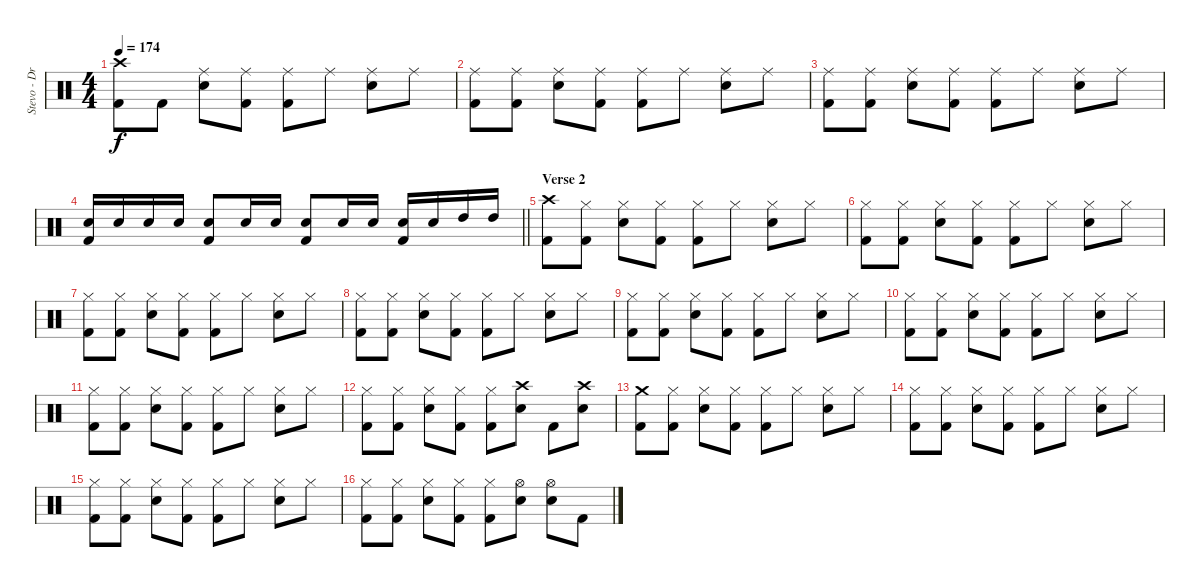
\track ("Stevo - Drums" "Stevo - Dr") {instrument percussion}
\staff {score}
\articulation defaults
\ts (4 4)
\tempo 174
\clef neutral
\ks c
("Crash high (hit)" "Kick (hit) 2").8{dy f} "Kick (hit) 2".8 ("Ride (middle)" "Electric Snare (hit)").8 ("Ride (middle)" "Kick (hit) 2").8 ("Ride (middle)" "Kick (hit) 2").8 "Ride (middle)".8 ("Ride (middle)" "Electric Snare (hit)").8 "Ride (middle)".8 |
("Ride (middle)" "Kick (hit) 2").8 ("Ride (middle)" "Kick (hit) 2").8 ("Ride (middle)" "Electric Snare (hit)").8 ("Ride (middle)" "Kick (hit) 2").8 ("Ride (middle)" "Kick (hit) 2").8 "Ride (middle)".8 ("Ride (middle)" "Electric Snare (hit)").8 "Ride (middle)".8 |
("Ride (middle)" "Kick (hit) 2").8 ("Ride (middle)" "Kick (hit) 2").8 ("Ride (middle)" "Electric Snare (hit)").8 ("Ride (middle)" "Kick (hit) 2").8 ("Ride (middle)" "Kick (hit) 2").8 "Ride (middle)".8 ("Ride (middle)" "Electric Snare (hit)").8 "Ride (middle)".8 |
\barLineRight lightlight
("Electric Snare (hit)" "Kick (hit) 2").16 "Electric Snare (hit)".16 "Electric Snare (hit)".16 "Electric Snare (hit)".16 ("Electric Snare (hit)" "Kick (hit) 2").8 "Electric Snare (hit)".16 "Electric Snare (hit)".16 ("Electric Snare (hit)" "Kick (hit) 2").8 "Electric Snare (hit)".16 "Electric Snare (hit)".16 ("Electric Snare (hit)" "Kick (hit) 2").16 "Electric Snare (hit)".16 "High Tom (hit)".16 "High Tom (hit)".16 |
\section ("" "Verse 2")
("Crash high (hit)" "Kick (hit) 2").8 ("Hi-Hat (closed)" "Kick (hit) 2").8 ("Hi-Hat (closed)" "Electric Snare (hit)").8 ("Hi-Hat (closed)" "Kick (hit) 2").8 ("Hi-Hat (closed)" "Kick (hit) 2").8 "Hi-Hat (closed)".8 ("Hi-Hat (closed)" "Electric Snare (hit)").8 "Hi-Hat (closed)".8 |
("Hi-Hat (closed)" "Kick (hit) 2").8 ("Hi-Hat (closed)" "Kick (hit) 2").8 ("Hi-Hat (closed)" "Electric Snare (hit)").8 ("Hi-Hat (closed)" "Kick (hit) 2").8 ("Hi-Hat (closed)" "Kick (hit) 2").8 "Hi-Hat (closed)".8 ("Hi-Hat (closed)" "Electric Snare (hit)").8 "Hi-Hat (closed)".8 |
("Hi-Hat (closed)" "Kick (hit) 2").8 ("Hi-Hat (closed)" "Kick (hit) 2").8 ("Hi-Hat (closed)" "Electric Snare (hit)").8 ("Hi-Hat (closed)" "Kick (hit) 2").8 ("Hi-Hat (closed)" "Kick (hit) 2").8 "Hi-Hat (closed)".8 ("Hi-Hat (closed)" "Electric Snare (hit)").8 "Hi-Hat (closed)".8 |
("Hi-Hat (closed)" "Kick (hit) 2").8 ("Hi-Hat (closed)" "Kick (hit) 2").8 ("Hi-Hat (closed)" "Electric Snare (hit)").8 ("Hi-Hat (closed)" "Kick (hit) 2").8 ("Hi-Hat (closed)" "Kick (hit) 2").8 "Hi-Hat (closed)".8 ("Hi-Hat (closed)" "Electric Snare (hit)").8 "Hi-Hat (closed)".8 |
("Hi-Hat (closed)" "Kick (hit) 2").8 ("Hi-Hat (closed)" "Kick (hit) 2").8 ("Hi-Hat (closed)" "Electric Snare (hit)").8 ("Hi-Hat (closed)" "Kick (hit) 2").8 ("Hi-Hat (closed)" "Kick (hit) 2").8 "Hi-Hat (closed)".8 ("Hi-Hat (closed)" "Electric Snare (hit)").8 "Hi-Hat (closed)".8 |
("Hi-Hat (closed)" "Kick (hit) 2").8 ("Hi-Hat (closed)" "Kick (hit) 2").8 ("Hi-Hat (closed)" "Electric Snare (hit)").8 ("Hi-Hat (closed)" "Kick (hit) 2").8 ("Hi-Hat (closed)" "Kick (hit) 2").8 "Hi-Hat (closed)".8 ("Hi-Hat (closed)" "Electric Snare (hit)").8 "Hi-Hat (closed)".8 |
("Hi-Hat (closed)" "Kick (hit) 2").8 ("Hi-Hat (closed)" "Kick (hit) 2").8 ("Hi-Hat (closed)" "Electric Snare (hit)").8 ("Hi-Hat (closed)" "Kick (hit) 2").8 ("Hi-Hat (closed)" "Kick (hit) 2").8 "Hi-Hat (closed)".8 ("Hi-Hat (closed)" "Electric Snare (hit)").8 "Hi-Hat (closed)".8 |
("Hi-Hat (closed)" "Kick (hit) 2").8 ("Hi-Hat (closed)" "Kick (hit) 2").8 ("Hi-Hat (closed)" "Electric Snare (hit)").8 ("Hi-Hat (closed)" "Kick (hit) 2").8 ("Hi-Hat (closed)" "Kick (hit) 2").8 ("Crash high (hit)" "Electric Snare (hit)").8 "Kick (hit) 2".8 ("Crash high (hit)" "Electric Snare (hit)").8 |
("Crash medium (hit)" "Kick (hit) 2").8 ("Hi-Hat (closed)" "Kick (hit) 2").8 ("Hi-Hat (closed)" "Electric Snare (hit)").8 ("Hi-Hat (closed)" "Kick (hit) 2").8 ("Hi-Hat (closed)" "Kick (hit) 2").8 "Hi-Hat (closed)".8 ("Hi-Hat (closed)" "Electric Snare (hit)").8 "Hi-Hat (closed)".8 |
("Hi-Hat (closed)" "Kick (hit) 2").8 ("Hi-Hat (closed)" "Kick (hit) 2").8 ("Hi-Hat (closed)" "Electric Snare (hit)").8 ("Hi-Hat (closed)" "Kick (hit) 2").8 ("Hi-Hat (closed)" "Kick (hit) 2").8 "Hi-Hat (closed)".8 ("Hi-Hat (closed)" "Electric Snare (hit)").8 "Hi-Hat (closed)".8 |
("Hi-Hat (closed)" "Kick (hit) 2").8 ("Hi-Hat (closed)" "Kick (hit) 2").8 ("Hi-Hat (closed)" "Electric Snare (hit)").8 ("Hi-Hat (closed)" "Kick (hit) 2").8 ("Hi-Hat (closed)" "Kick (hit) 2").8 "Hi-Hat (closed)".8 ("Hi-Hat (closed)" "Electric Snare (hit)").8 "Hi-Hat (closed)".8 |
("Hi-Hat (closed)" "Kick (hit) 2").8 ("Hi-Hat (closed)" "Kick (hit) 2").8 ("Hi-Hat (closed)" "Electric Snare (hit)").8 ("Hi-Hat (closed)" "Kick (hit) 2").8 ("Hi-Hat (closed)" "Kick (hit) 2").8 ("Hi-Hat (open)" "Electric Snare (hit)").8 ("Hi-Hat (open)" "Electric Snare (hit)").8 "Kick (hit) 2".8
